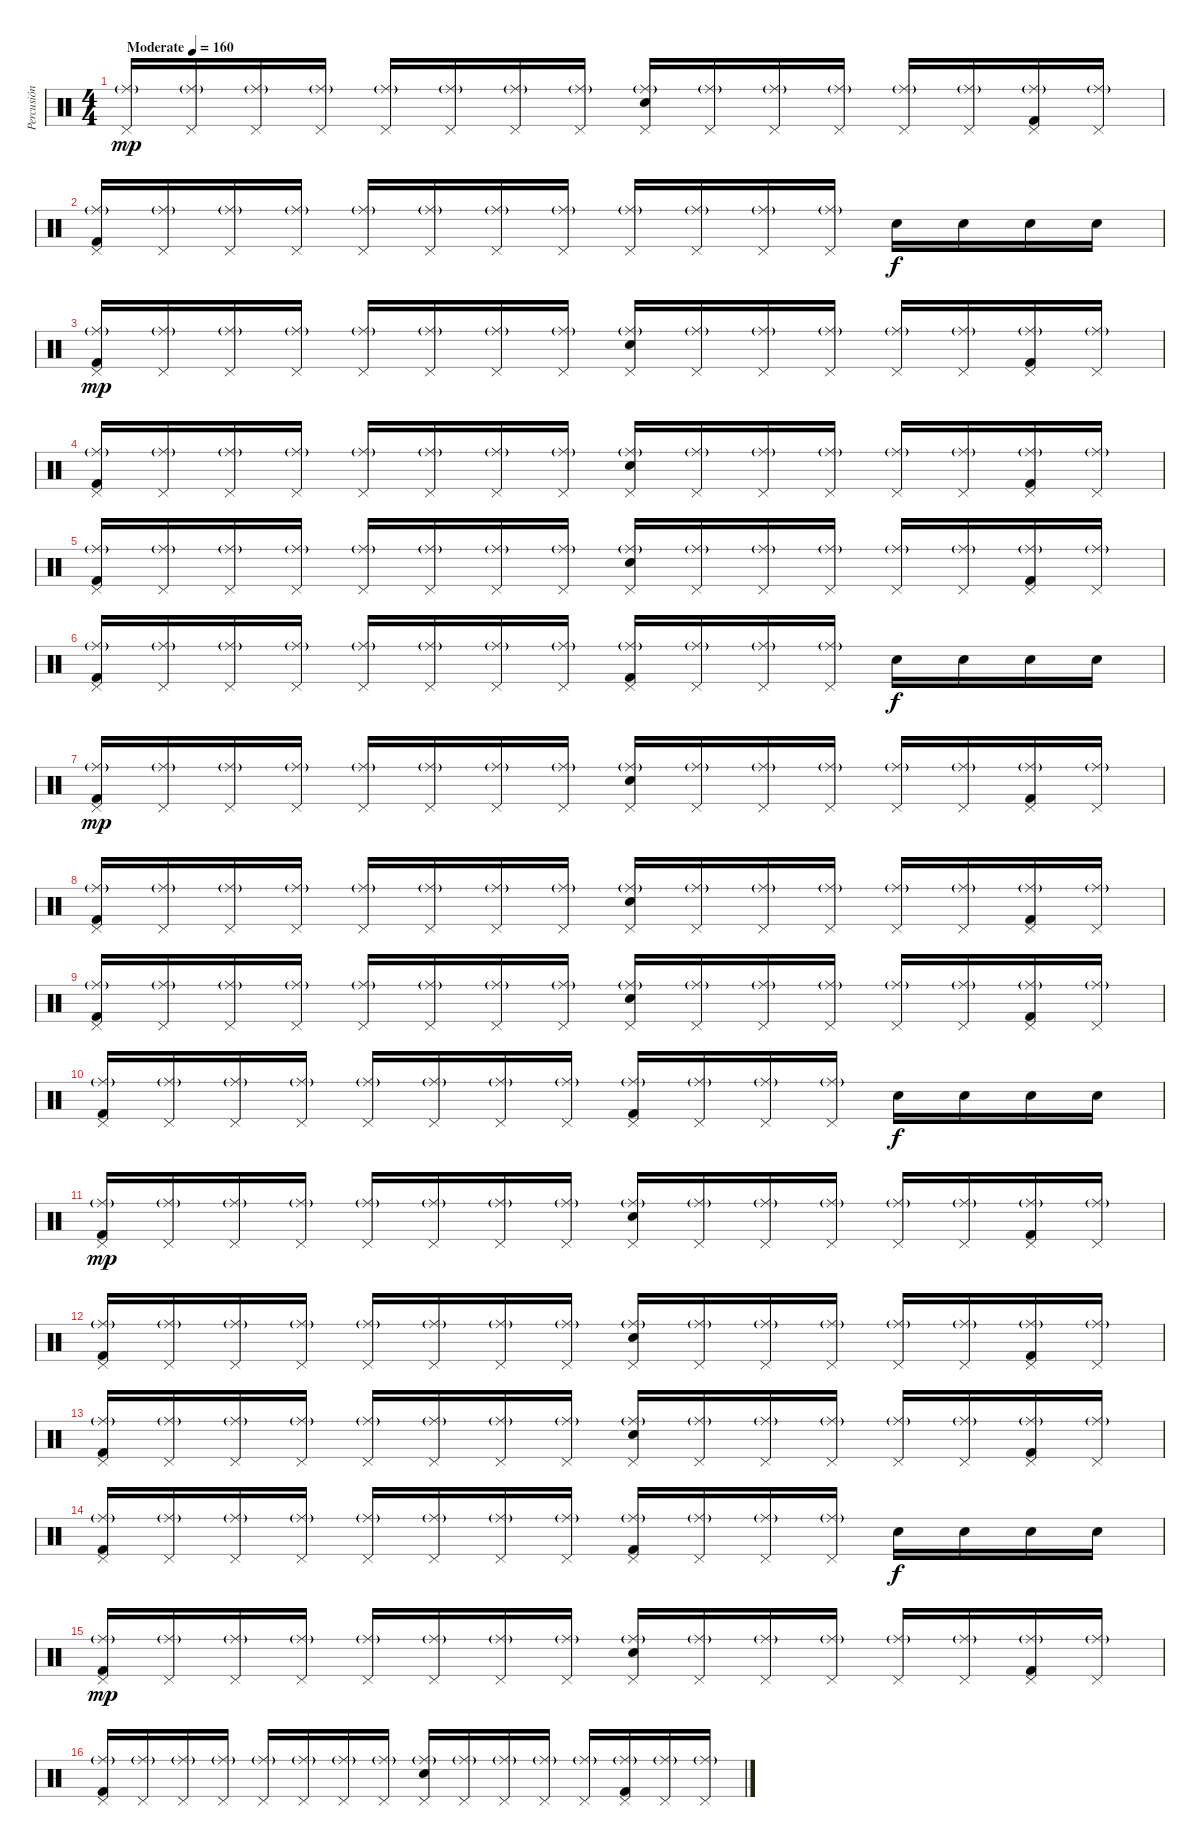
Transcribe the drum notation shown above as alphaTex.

\track ("Percusión" "Percusión") {instrument percussion}
\staff {score}
\articulation defaults
\ts (4 4)
\tempo (160 "Moderate")
\clef neutral
\ks c
("Pedal Hi-Hat (hit)" "Ride (middle)"{g}).16{dy mp} ("Pedal Hi-Hat (hit)" "Ride (middle)"{g}).16 ("Pedal Hi-Hat (hit)" "Ride (middle)"{g}).16 ("Pedal Hi-Hat (hit)" "Ride (middle)"{g}).16 ("Pedal Hi-Hat (hit)" "Ride (middle)"{g}).16 ("Pedal Hi-Hat (hit)" "Ride (middle)"{g}).16 ("Pedal Hi-Hat (hit)" "Ride (middle)"{g}).16 ("Pedal Hi-Hat (hit)" "Ride (middle)"{g}).16 ("Pedal Hi-Hat (hit)" "Ride (middle)"{g} "Electric Snare (hit)").16 ("Pedal Hi-Hat (hit)" "Ride (middle)"{g}).16 ("Pedal Hi-Hat (hit)" "Ride (middle)"{g}).16 ("Pedal Hi-Hat (hit)" "Ride (middle)"{g}).16 ("Pedal Hi-Hat (hit)" "Ride (middle)"{g}).16 ("Pedal Hi-Hat (hit)" "Ride (middle)"{g}).16 ("Pedal Hi-Hat (hit)" "Ride (middle)"{g} "Kick (hit) 2").16 ("Pedal Hi-Hat (hit)" "Ride (middle)"{g}).16 |
("Pedal Hi-Hat (hit)" "Ride (middle)"{g} "Kick (hit) 2").16 ("Pedal Hi-Hat (hit)" "Ride (middle)"{g}).16 ("Pedal Hi-Hat (hit)" "Ride (middle)"{g}).16 ("Pedal Hi-Hat (hit)" "Ride (middle)"{g}).16 ("Pedal Hi-Hat (hit)" "Ride (middle)"{g}).16 ("Pedal Hi-Hat (hit)" "Ride (middle)"{g}).16 ("Pedal Hi-Hat (hit)" "Ride (middle)"{g}).16 ("Pedal Hi-Hat (hit)" "Ride (middle)"{g}).16 ("Pedal Hi-Hat (hit)" "Ride (middle)"{g}).16 ("Pedal Hi-Hat (hit)" "Ride (middle)"{g}).16 ("Pedal Hi-Hat (hit)" "Ride (middle)"{g}).16 ("Pedal Hi-Hat (hit)" "Ride (middle)"{g}).16 "Electric Snare (hit)".16{dy f} "Electric Snare (hit)".16 "Electric Snare (hit)".16 "Electric Snare (hit)".16 |
("Pedal Hi-Hat (hit)" "Ride (middle)"{g} "Kick (hit) 2").16{dy mp} ("Pedal Hi-Hat (hit)" "Ride (middle)"{g}).16 ("Pedal Hi-Hat (hit)" "Ride (middle)"{g}).16 ("Pedal Hi-Hat (hit)" "Ride (middle)"{g}).16 ("Pedal Hi-Hat (hit)" "Ride (middle)"{g}).16 ("Pedal Hi-Hat (hit)" "Ride (middle)"{g}).16 ("Pedal Hi-Hat (hit)" "Ride (middle)"{g}).16 ("Pedal Hi-Hat (hit)" "Ride (middle)"{g}).16 ("Pedal Hi-Hat (hit)" "Ride (middle)"{g} "Electric Snare (hit)").16 ("Pedal Hi-Hat (hit)" "Ride (middle)"{g}).16 ("Pedal Hi-Hat (hit)" "Ride (middle)"{g}).16 ("Pedal Hi-Hat (hit)" "Ride (middle)"{g}).16 ("Pedal Hi-Hat (hit)" "Ride (middle)"{g}).16 ("Pedal Hi-Hat (hit)" "Ride (middle)"{g}).16 ("Pedal Hi-Hat (hit)" "Ride (middle)"{g} "Kick (hit) 2").16 ("Pedal Hi-Hat (hit)" "Ride (middle)"{g}).16 |
("Pedal Hi-Hat (hit)" "Ride (middle)"{g} "Kick (hit) 2").16 ("Pedal Hi-Hat (hit)" "Ride (middle)"{g}).16 ("Pedal Hi-Hat (hit)" "Ride (middle)"{g}).16 ("Pedal Hi-Hat (hit)" "Ride (middle)"{g}).16 ("Pedal Hi-Hat (hit)" "Ride (middle)"{g}).16 ("Pedal Hi-Hat (hit)" "Ride (middle)"{g}).16 ("Pedal Hi-Hat (hit)" "Ride (middle)"{g}).16 ("Pedal Hi-Hat (hit)" "Ride (middle)"{g}).16 ("Pedal Hi-Hat (hit)" "Ride (middle)"{g} "Electric Snare (hit)").16 ("Pedal Hi-Hat (hit)" "Ride (middle)"{g}).16 ("Pedal Hi-Hat (hit)" "Ride (middle)"{g}).16 ("Pedal Hi-Hat (hit)" "Ride (middle)"{g}).16 ("Pedal Hi-Hat (hit)" "Ride (middle)"{g}).16 ("Pedal Hi-Hat (hit)" "Ride (middle)"{g}).16 ("Pedal Hi-Hat (hit)" "Ride (middle)"{g} "Kick (hit) 2").16 ("Pedal Hi-Hat (hit)" "Ride (middle)"{g}).16 |
("Pedal Hi-Hat (hit)" "Ride (middle)"{g} "Kick (hit) 2").16 ("Pedal Hi-Hat (hit)" "Ride (middle)"{g}).16 ("Pedal Hi-Hat (hit)" "Ride (middle)"{g}).16 ("Pedal Hi-Hat (hit)" "Ride (middle)"{g}).16 ("Pedal Hi-Hat (hit)" "Ride (middle)"{g}).16 ("Pedal Hi-Hat (hit)" "Ride (middle)"{g}).16 ("Pedal Hi-Hat (hit)" "Ride (middle)"{g}).16 ("Pedal Hi-Hat (hit)" "Ride (middle)"{g}).16 ("Pedal Hi-Hat (hit)" "Ride (middle)"{g} "Electric Snare (hit)").16 ("Pedal Hi-Hat (hit)" "Ride (middle)"{g}).16 ("Pedal Hi-Hat (hit)" "Ride (middle)"{g}).16 ("Pedal Hi-Hat (hit)" "Ride (middle)"{g}).16 ("Pedal Hi-Hat (hit)" "Ride (middle)"{g}).16 ("Pedal Hi-Hat (hit)" "Ride (middle)"{g}).16 ("Pedal Hi-Hat (hit)" "Ride (middle)"{g} "Kick (hit) 2").16 ("Pedal Hi-Hat (hit)" "Ride (middle)"{g}).16 |
("Pedal Hi-Hat (hit)" "Ride (middle)"{g} "Kick (hit) 2").16 ("Pedal Hi-Hat (hit)" "Ride (middle)"{g}).16 ("Pedal Hi-Hat (hit)" "Ride (middle)"{g}).16 ("Pedal Hi-Hat (hit)" "Ride (middle)"{g}).16 ("Pedal Hi-Hat (hit)" "Ride (middle)"{g}).16 ("Pedal Hi-Hat (hit)" "Ride (middle)"{g}).16 ("Pedal Hi-Hat (hit)" "Ride (middle)"{g}).16 ("Pedal Hi-Hat (hit)" "Ride (middle)"{g}).16 ("Pedal Hi-Hat (hit)" "Ride (middle)"{g} "Kick (hit) 2").16 ("Pedal Hi-Hat (hit)" "Ride (middle)"{g}).16 ("Pedal Hi-Hat (hit)" "Ride (middle)"{g}).16 ("Pedal Hi-Hat (hit)" "Ride (middle)"{g}).16 "Electric Snare (hit)".16{dy f} "Electric Snare (hit)".16 "Electric Snare (hit)".16 "Electric Snare (hit)".16 |
("Pedal Hi-Hat (hit)" "Ride (middle)"{g} "Kick (hit) 2").16{dy mp} ("Pedal Hi-Hat (hit)" "Ride (middle)"{g}).16 ("Pedal Hi-Hat (hit)" "Ride (middle)"{g}).16 ("Pedal Hi-Hat (hit)" "Ride (middle)"{g}).16 ("Pedal Hi-Hat (hit)" "Ride (middle)"{g}).16 ("Pedal Hi-Hat (hit)" "Ride (middle)"{g}).16 ("Pedal Hi-Hat (hit)" "Ride (middle)"{g}).16 ("Pedal Hi-Hat (hit)" "Ride (middle)"{g}).16 ("Pedal Hi-Hat (hit)" "Ride (middle)"{g} "Electric Snare (hit)").16 ("Pedal Hi-Hat (hit)" "Ride (middle)"{g}).16 ("Pedal Hi-Hat (hit)" "Ride (middle)"{g}).16 ("Pedal Hi-Hat (hit)" "Ride (middle)"{g}).16 ("Pedal Hi-Hat (hit)" "Ride (middle)"{g}).16 ("Pedal Hi-Hat (hit)" "Ride (middle)"{g}).16 ("Pedal Hi-Hat (hit)" "Ride (middle)"{g} "Kick (hit) 2").16 ("Pedal Hi-Hat (hit)" "Ride (middle)"{g}).16 |
("Pedal Hi-Hat (hit)" "Ride (middle)"{g} "Kick (hit) 2").16 ("Pedal Hi-Hat (hit)" "Ride (middle)"{g}).16 ("Pedal Hi-Hat (hit)" "Ride (middle)"{g}).16 ("Pedal Hi-Hat (hit)" "Ride (middle)"{g}).16 ("Pedal Hi-Hat (hit)" "Ride (middle)"{g}).16 ("Pedal Hi-Hat (hit)" "Ride (middle)"{g}).16 ("Pedal Hi-Hat (hit)" "Ride (middle)"{g}).16 ("Pedal Hi-Hat (hit)" "Ride (middle)"{g}).16 ("Pedal Hi-Hat (hit)" "Ride (middle)"{g} "Electric Snare (hit)").16 ("Pedal Hi-Hat (hit)" "Ride (middle)"{g}).16 ("Pedal Hi-Hat (hit)" "Ride (middle)"{g}).16 ("Pedal Hi-Hat (hit)" "Ride (middle)"{g}).16 ("Pedal Hi-Hat (hit)" "Ride (middle)"{g}).16 ("Pedal Hi-Hat (hit)" "Ride (middle)"{g}).16 ("Pedal Hi-Hat (hit)" "Ride (middle)"{g} "Kick (hit) 2").16 ("Pedal Hi-Hat (hit)" "Ride (middle)"{g}).16 |
("Pedal Hi-Hat (hit)" "Ride (middle)"{g} "Kick (hit) 2").16 ("Pedal Hi-Hat (hit)" "Ride (middle)"{g}).16 ("Pedal Hi-Hat (hit)" "Ride (middle)"{g}).16 ("Pedal Hi-Hat (hit)" "Ride (middle)"{g}).16 ("Pedal Hi-Hat (hit)" "Ride (middle)"{g}).16 ("Pedal Hi-Hat (hit)" "Ride (middle)"{g}).16 ("Pedal Hi-Hat (hit)" "Ride (middle)"{g}).16 ("Pedal Hi-Hat (hit)" "Ride (middle)"{g}).16 ("Pedal Hi-Hat (hit)" "Ride (middle)"{g} "Electric Snare (hit)").16 ("Pedal Hi-Hat (hit)" "Ride (middle)"{g}).16 ("Pedal Hi-Hat (hit)" "Ride (middle)"{g}).16 ("Pedal Hi-Hat (hit)" "Ride (middle)"{g}).16 ("Pedal Hi-Hat (hit)" "Ride (middle)"{g}).16 ("Pedal Hi-Hat (hit)" "Ride (middle)"{g}).16 ("Pedal Hi-Hat (hit)" "Ride (middle)"{g} "Kick (hit) 2").16 ("Pedal Hi-Hat (hit)" "Ride (middle)"{g}).16 |
("Pedal Hi-Hat (hit)" "Ride (middle)"{g} "Kick (hit) 2").16 ("Pedal Hi-Hat (hit)" "Ride (middle)"{g}).16 ("Pedal Hi-Hat (hit)" "Ride (middle)"{g}).16 ("Pedal Hi-Hat (hit)" "Ride (middle)"{g}).16 ("Pedal Hi-Hat (hit)" "Ride (middle)"{g}).16 ("Pedal Hi-Hat (hit)" "Ride (middle)"{g}).16 ("Pedal Hi-Hat (hit)" "Ride (middle)"{g}).16 ("Pedal Hi-Hat (hit)" "Ride (middle)"{g}).16 ("Pedal Hi-Hat (hit)" "Ride (middle)"{g} "Kick (hit) 2").16 ("Pedal Hi-Hat (hit)" "Ride (middle)"{g}).16 ("Pedal Hi-Hat (hit)" "Ride (middle)"{g}).16 ("Pedal Hi-Hat (hit)" "Ride (middle)"{g}).16 "Electric Snare (hit)".16{dy f} "Electric Snare (hit)".16 "Electric Snare (hit)".16 "Electric Snare (hit)".16 |
("Pedal Hi-Hat (hit)" "Ride (middle)"{g} "Kick (hit) 2").16{dy mp} ("Pedal Hi-Hat (hit)" "Ride (middle)"{g}).16 ("Pedal Hi-Hat (hit)" "Ride (middle)"{g}).16 ("Pedal Hi-Hat (hit)" "Ride (middle)"{g}).16 ("Pedal Hi-Hat (hit)" "Ride (middle)"{g}).16 ("Pedal Hi-Hat (hit)" "Ride (middle)"{g}).16 ("Pedal Hi-Hat (hit)" "Ride (middle)"{g}).16 ("Pedal Hi-Hat (hit)" "Ride (middle)"{g}).16 ("Pedal Hi-Hat (hit)" "Ride (middle)"{g} "Electric Snare (hit)").16 ("Pedal Hi-Hat (hit)" "Ride (middle)"{g}).16 ("Pedal Hi-Hat (hit)" "Ride (middle)"{g}).16 ("Pedal Hi-Hat (hit)" "Ride (middle)"{g}).16 ("Pedal Hi-Hat (hit)" "Ride (middle)"{g}).16 ("Pedal Hi-Hat (hit)" "Ride (middle)"{g}).16 ("Pedal Hi-Hat (hit)" "Ride (middle)"{g} "Kick (hit) 2").16 ("Pedal Hi-Hat (hit)" "Ride (middle)"{g}).16 |
("Pedal Hi-Hat (hit)" "Ride (middle)"{g} "Kick (hit) 2").16 ("Pedal Hi-Hat (hit)" "Ride (middle)"{g}).16 ("Pedal Hi-Hat (hit)" "Ride (middle)"{g}).16 ("Pedal Hi-Hat (hit)" "Ride (middle)"{g}).16 ("Pedal Hi-Hat (hit)" "Ride (middle)"{g}).16 ("Pedal Hi-Hat (hit)" "Ride (middle)"{g}).16 ("Pedal Hi-Hat (hit)" "Ride (middle)"{g}).16 ("Pedal Hi-Hat (hit)" "Ride (middle)"{g}).16 ("Pedal Hi-Hat (hit)" "Ride (middle)"{g} "Electric Snare (hit)").16 ("Pedal Hi-Hat (hit)" "Ride (middle)"{g}).16 ("Pedal Hi-Hat (hit)" "Ride (middle)"{g}).16 ("Pedal Hi-Hat (hit)" "Ride (middle)"{g}).16 ("Pedal Hi-Hat (hit)" "Ride (middle)"{g}).16 ("Pedal Hi-Hat (hit)" "Ride (middle)"{g}).16 ("Pedal Hi-Hat (hit)" "Ride (middle)"{g} "Kick (hit) 2").16 ("Pedal Hi-Hat (hit)" "Ride (middle)"{g}).16 |
("Pedal Hi-Hat (hit)" "Ride (middle)"{g} "Kick (hit) 2").16 ("Pedal Hi-Hat (hit)" "Ride (middle)"{g}).16 ("Pedal Hi-Hat (hit)" "Ride (middle)"{g}).16 ("Pedal Hi-Hat (hit)" "Ride (middle)"{g}).16 ("Pedal Hi-Hat (hit)" "Ride (middle)"{g}).16 ("Pedal Hi-Hat (hit)" "Ride (middle)"{g}).16 ("Pedal Hi-Hat (hit)" "Ride (middle)"{g}).16 ("Pedal Hi-Hat (hit)" "Ride (middle)"{g}).16 ("Pedal Hi-Hat (hit)" "Ride (middle)"{g} "Electric Snare (hit)").16 ("Pedal Hi-Hat (hit)" "Ride (middle)"{g}).16 ("Pedal Hi-Hat (hit)" "Ride (middle)"{g}).16 ("Pedal Hi-Hat (hit)" "Ride (middle)"{g}).16 ("Pedal Hi-Hat (hit)" "Ride (middle)"{g}).16 ("Pedal Hi-Hat (hit)" "Ride (middle)"{g}).16 ("Pedal Hi-Hat (hit)" "Ride (middle)"{g} "Kick (hit) 2").16 ("Pedal Hi-Hat (hit)" "Ride (middle)"{g}).16 |
("Pedal Hi-Hat (hit)" "Ride (middle)"{g} "Kick (hit) 2").16 ("Pedal Hi-Hat (hit)" "Ride (middle)"{g}).16 ("Pedal Hi-Hat (hit)" "Ride (middle)"{g}).16 ("Pedal Hi-Hat (hit)" "Ride (middle)"{g}).16 ("Pedal Hi-Hat (hit)" "Ride (middle)"{g}).16 ("Pedal Hi-Hat (hit)" "Ride (middle)"{g}).16 ("Pedal Hi-Hat (hit)" "Ride (middle)"{g}).16 ("Pedal Hi-Hat (hit)" "Ride (middle)"{g}).16 ("Pedal Hi-Hat (hit)" "Ride (middle)"{g} "Kick (hit) 2").16 ("Pedal Hi-Hat (hit)" "Ride (middle)"{g}).16 ("Pedal Hi-Hat (hit)" "Ride (middle)"{g}).16 ("Pedal Hi-Hat (hit)" "Ride (middle)"{g}).16 "Electric Snare (hit)".16{dy f} "Electric Snare (hit)".16 "Electric Snare (hit)".16 "Electric Snare (hit)".16 |
("Pedal Hi-Hat (hit)" "Ride (middle)"{g} "Kick (hit) 2").16{dy mp} ("Pedal Hi-Hat (hit)" "Ride (middle)"{g}).16 ("Pedal Hi-Hat (hit)" "Ride (middle)"{g}).16 ("Pedal Hi-Hat (hit)" "Ride (middle)"{g}).16 ("Pedal Hi-Hat (hit)" "Ride (middle)"{g}).16 ("Pedal Hi-Hat (hit)" "Ride (middle)"{g}).16 ("Pedal Hi-Hat (hit)" "Ride (middle)"{g}).16 ("Pedal Hi-Hat (hit)" "Ride (middle)"{g}).16 ("Pedal Hi-Hat (hit)" "Ride (middle)"{g} "Electric Snare (hit)").16 ("Pedal Hi-Hat (hit)" "Ride (middle)"{g}).16 ("Pedal Hi-Hat (hit)" "Ride (middle)"{g}).16 ("Pedal Hi-Hat (hit)" "Ride (middle)"{g}).16 ("Pedal Hi-Hat (hit)" "Ride (middle)"{g}).16 ("Pedal Hi-Hat (hit)" "Ride (middle)"{g}).16 ("Pedal Hi-Hat (hit)" "Ride (middle)"{g} "Kick (hit) 2").16 ("Pedal Hi-Hat (hit)" "Ride (middle)"{g}).16 |
("Pedal Hi-Hat (hit)" "Ride (middle)"{g} "Kick (hit) 2").16 ("Pedal Hi-Hat (hit)" "Ride (middle)"{g}).16 ("Pedal Hi-Hat (hit)" "Ride (middle)"{g}).16 ("Pedal Hi-Hat (hit)" "Ride (middle)"{g}).16 ("Pedal Hi-Hat (hit)" "Ride (middle)"{g}).16 ("Pedal Hi-Hat (hit)" "Ride (middle)"{g}).16 ("Pedal Hi-Hat (hit)" "Ride (middle)"{g}).16 ("Pedal Hi-Hat (hit)" "Ride (middle)"{g}).16 ("Pedal Hi-Hat (hit)" "Ride (middle)"{g} "Electric Snare (hit)").16 ("Pedal Hi-Hat (hit)" "Ride (middle)"{g}).16 ("Pedal Hi-Hat (hit)" "Ride (middle)"{g}).16 ("Pedal Hi-Hat (hit)" "Ride (middle)"{g}).16 ("Pedal Hi-Hat (hit)" "Ride (middle)"{g}).16 ("Pedal Hi-Hat (hit)" "Ride (middle)"{g} "Kick (hit) 2").16 ("Pedal Hi-Hat (hit)" "Ride (middle)"{g}).16 ("Pedal Hi-Hat (hit)" "Ride (middle)"{g}).16
